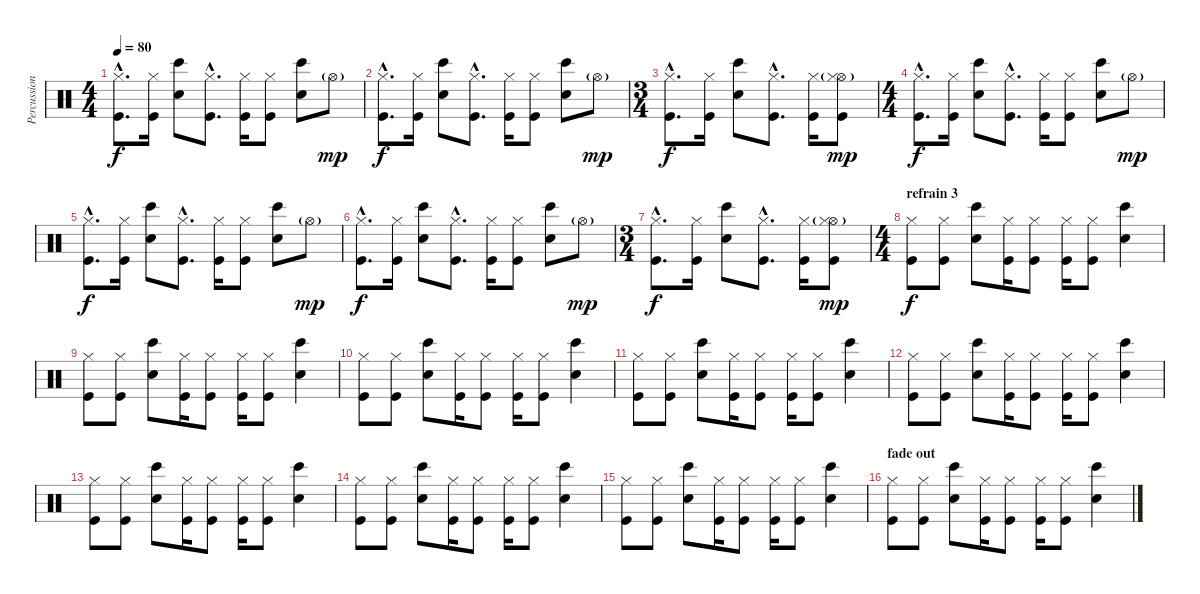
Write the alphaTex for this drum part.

\track ("Percussions" "Percussion") {instrument percussion}
\staff {score}
\articulation defaults
\ts (4 4)
\tempo 80
\clef neutral
\ks c
("Hi-Hat (closed)"{hac} "Kick (hit)"{hac}).8{d dy f} ("Hi-Hat (closed)" "Kick (hit)").16 ("Electric Snare (hit)" "Bongo High (hit)").8 ("Hi-Hat (closed)"{hac} "Kick (hit)"{hac}).8{d} ("Hi-Hat (closed)" "Kick (hit)").16 ("Hi-Hat (closed)" "Kick (hit)").8 ("Electric Snare (hit)" "Bongo High (hit)").8 "Hi-Hat (open)"{g}.8{dy mp} |
("Hi-Hat (closed)"{hac} "Kick (hit)"{hac}).8{d dy f} ("Hi-Hat (closed)" "Kick (hit)").16 ("Electric Snare (hit)" "Bongo High (hit)").8 ("Hi-Hat (closed)"{hac} "Kick (hit)"{hac}).8{d} ("Hi-Hat (closed)" "Kick (hit)").16 ("Hi-Hat (closed)" "Kick (hit)").8 ("Electric Snare (hit)" "Bongo High (hit)").8 "Hi-Hat (open)"{g}.8{dy mp} |
\ts (3 4)
("Hi-Hat (closed)"{hac} "Kick (hit)"{hac}).8{d dy f} ("Hi-Hat (closed)" "Kick (hit)").16 ("Electric Snare (hit)" "Bongo High (hit)").8 ("Hi-Hat (closed)"{hac} "Kick (hit)"{hac}).8{d} ("Hi-Hat (closed)" "Kick (hit)").16 ("Hi-Hat (open)"{g} "Hi-Hat (closed)" "Kick (hit)").8{dy mp} |
\ts (4 4)
("Hi-Hat (closed)"{hac} "Kick (hit)"{hac}).8{d dy f} ("Hi-Hat (closed)" "Kick (hit)").16 ("Electric Snare (hit)" "Bongo High (hit)").8 ("Hi-Hat (closed)"{hac} "Kick (hit)"{hac}).8{d} ("Hi-Hat (closed)" "Kick (hit)").16 ("Hi-Hat (closed)" "Kick (hit)").8 ("Electric Snare (hit)" "Bongo High (hit)").8 "Hi-Hat (open)"{g}.8{dy mp} |
("Hi-Hat (closed)"{hac} "Kick (hit)"{hac}).8{d dy f} ("Hi-Hat (closed)" "Kick (hit)").16 ("Electric Snare (hit)" "Bongo High (hit)").8 ("Hi-Hat (closed)"{hac} "Kick (hit)"{hac}).8{d} ("Hi-Hat (closed)" "Kick (hit)").16 ("Hi-Hat (closed)" "Kick (hit)").8 ("Electric Snare (hit)" "Bongo High (hit)").8 "Hi-Hat (open)"{g}.8{dy mp} |
("Hi-Hat (closed)"{hac} "Kick (hit)"{hac}).8{d dy f} ("Hi-Hat (closed)" "Kick (hit)").16 ("Electric Snare (hit)" "Bongo High (hit)").8 ("Hi-Hat (closed)"{hac} "Kick (hit)"{hac}).8{d} ("Hi-Hat (closed)" "Kick (hit)").16 ("Hi-Hat (closed)" "Kick (hit)").8 ("Electric Snare (hit)" "Bongo High (hit)").8 "Hi-Hat (open)"{g}.8{dy mp} |
\ts (3 4)
("Hi-Hat (closed)"{hac} "Kick (hit)"{hac}).8{d dy f} ("Hi-Hat (closed)" "Kick (hit)").16 ("Electric Snare (hit)" "Bongo High (hit)").8 ("Hi-Hat (closed)"{hac} "Kick (hit)"{hac}).8{d} ("Hi-Hat (closed)" "Kick (hit)").16 ("Hi-Hat (open)"{g} "Hi-Hat (closed)" "Kick (hit)").8{dy mp} |
\ts (4 4)
\section ("" "refrain 3")
("Hi-Hat (closed)" "Kick (hit)").8{dy f} ("Hi-Hat (closed)" "Kick (hit)").8 ("Electric Snare (hit)" "Bongo High (hit)").8 ("Hi-Hat (closed)" "Kick (hit)").16 ("Hi-Hat (closed)" "Kick (hit)").8 ("Hi-Hat (closed)" "Kick (hit)").16 ("Hi-Hat (closed)" "Kick (hit)").8 ("Electric Snare (hit)" "Bongo High (hit)").4 |
("Hi-Hat (closed)" "Kick (hit)").8 ("Hi-Hat (closed)" "Kick (hit)").8 ("Electric Snare (hit)" "Bongo High (hit)").8 ("Hi-Hat (closed)" "Kick (hit)").16 ("Hi-Hat (closed)" "Kick (hit)").8 ("Hi-Hat (closed)" "Kick (hit)").16 ("Hi-Hat (closed)" "Kick (hit)").8 ("Electric Snare (hit)" "Bongo High (hit)").4 |
("Hi-Hat (closed)" "Kick (hit)").8 ("Hi-Hat (closed)" "Kick (hit)").8 ("Electric Snare (hit)" "Bongo High (hit)").8 ("Hi-Hat (closed)" "Kick (hit)").16 ("Hi-Hat (closed)" "Kick (hit)").8 ("Hi-Hat (closed)" "Kick (hit)").16 ("Hi-Hat (closed)" "Kick (hit)").8 ("Electric Snare (hit)" "Bongo High (hit)").4 |
("Hi-Hat (closed)" "Kick (hit)").8 ("Hi-Hat (closed)" "Kick (hit)").8 ("Electric Snare (hit)" "Bongo High (hit)").8 ("Hi-Hat (closed)" "Kick (hit)").16 ("Hi-Hat (closed)" "Kick (hit)").8 ("Hi-Hat (closed)" "Kick (hit)").16 ("Hi-Hat (closed)" "Kick (hit)").8 ("Electric Snare (hit)" "Bongo High (hit)").4 |
("Hi-Hat (closed)" "Kick (hit)").8 ("Hi-Hat (closed)" "Kick (hit)").8 ("Electric Snare (hit)" "Bongo High (hit)").8 ("Hi-Hat (closed)" "Kick (hit)").16 ("Hi-Hat (closed)" "Kick (hit)").8 ("Hi-Hat (closed)" "Kick (hit)").16 ("Hi-Hat (closed)" "Kick (hit)").8 ("Electric Snare (hit)" "Bongo High (hit)").4 |
("Hi-Hat (closed)" "Kick (hit)").8 ("Hi-Hat (closed)" "Kick (hit)").8 ("Electric Snare (hit)" "Bongo High (hit)").8 ("Hi-Hat (closed)" "Kick (hit)").16 ("Hi-Hat (closed)" "Kick (hit)").8 ("Hi-Hat (closed)" "Kick (hit)").16 ("Hi-Hat (closed)" "Kick (hit)").8 ("Electric Snare (hit)" "Bongo High (hit)").4 |
("Hi-Hat (closed)" "Kick (hit)").8 ("Hi-Hat (closed)" "Kick (hit)").8 ("Electric Snare (hit)" "Bongo High (hit)").8 ("Hi-Hat (closed)" "Kick (hit)").16 ("Hi-Hat (closed)" "Kick (hit)").8 ("Hi-Hat (closed)" "Kick (hit)").16 ("Hi-Hat (closed)" "Kick (hit)").8 ("Electric Snare (hit)" "Bongo High (hit)").4 |
("Hi-Hat (closed)" "Kick (hit)").8 ("Hi-Hat (closed)" "Kick (hit)").8 ("Electric Snare (hit)" "Bongo High (hit)").8 ("Hi-Hat (closed)" "Kick (hit)").16 ("Hi-Hat (closed)" "Kick (hit)").8 ("Hi-Hat (closed)" "Kick (hit)").16 ("Hi-Hat (closed)" "Kick (hit)").8 ("Electric Snare (hit)" "Bongo High (hit)").4 |
\section ("" "fade out")
("Hi-Hat (closed)" "Kick (hit)").8 ("Hi-Hat (closed)" "Kick (hit)").8 ("Electric Snare (hit)" "Bongo High (hit)").8 ("Hi-Hat (closed)" "Kick (hit)").16 ("Hi-Hat (closed)" "Kick (hit)").8 ("Hi-Hat (closed)" "Kick (hit)").16 ("Hi-Hat (closed)" "Kick (hit)").8 ("Electric Snare (hit)" "Bongo High (hit)").4
